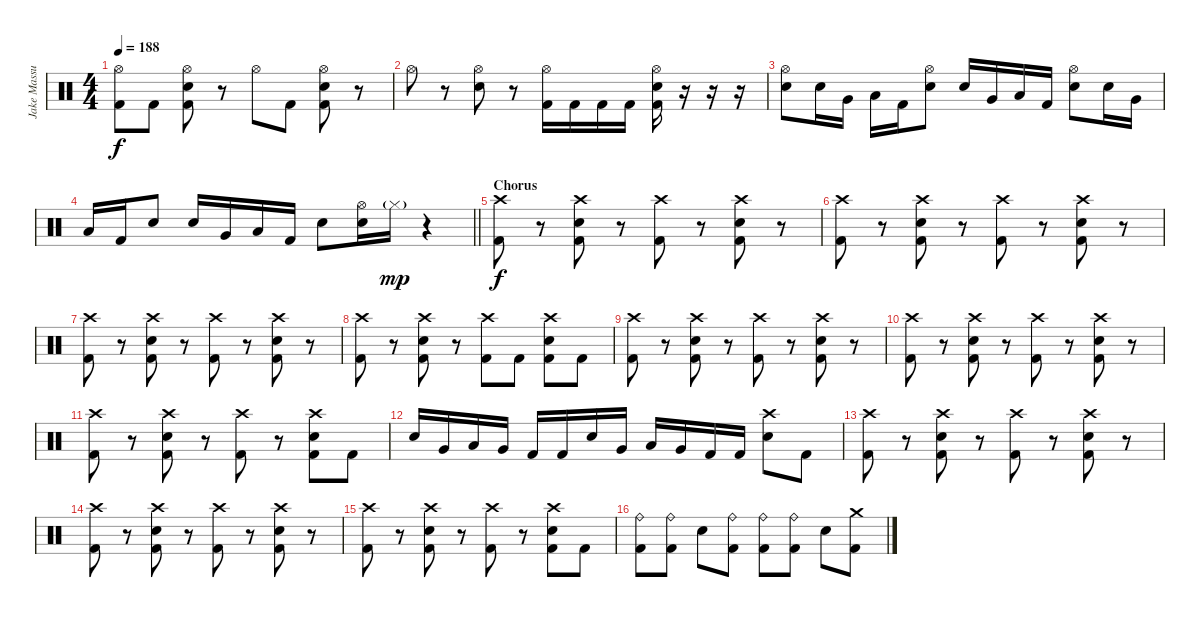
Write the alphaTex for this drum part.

\track ("Jake Massucco" "Jake Massu") {instrument percussion}
\staff {score}
\articulation defaults
\ts (4 4)
\tempo 188
\clef neutral
\ks c
("Hi-Hat (open)" "Kick (hit) 2").8{dy f} "Kick (hit) 2".8 ("Hi-Hat (open)" "Electric Snare (hit)" "Kick (hit) 2").8 r.8 "Hi-Hat (open)".8 "Kick (hit) 2".8 ("Hi-Hat (open)" "Electric Snare (hit)" "Kick (hit) 2").8 r.8 |
"Hi-Hat (open)".8 r.8 ("Hi-Hat (open)" "Electric Snare (hit)").8 r.8 ("Hi-Hat (open)" "Kick (hit) 2").16 "Kick (hit) 2".16 "Kick (hit) 2".16 "Kick (hit) 2".16 ("Hi-Hat (open)" "Electric Snare (hit)" "Kick (hit) 2").16 r.16 r.16 r.16 |
("Hi-Hat (open)" "Electric Snare (hit)").8 "Electric Snare (hit)".16 "Very Low Tom (hit)".16 "Low Floor Tom (hit)".16 "Kick (hit) 2".16 ("Hi-Hat (open)" "Electric Snare (hit)").8 "Electric Snare (hit)".16 "Very Low Tom (hit)".16 "Low Floor Tom (hit)".16 "Kick (hit) 2".16 ("Hi-Hat (open)" "Electric Snare (hit)").8 "Electric Snare (hit)".16 "Very Low Tom (hit)".16 |
\barLineRight lightlight "Low Floor Tom (hit)".16 "Kick (hit) 2".16 "Electric Snare (hit)".8 "Electric Snare (hit)".16 "Very Low Tom (hit)".16 "Low Floor Tom (hit)".16 "Kick (hit) 2".16 "Electric Snare (hit)".8
("Hi-Hat (open)" "Electric Snare (hit)").16 "Hi-Hat (closed)"{g}.16{dy mp} r.4 |
\section ("" "Chorus")
("Crash high (hit)" "Kick (hit) 2").8{dy f} r.8 ("Crash high (hit)" "Electric Snare (hit)" "Kick (hit) 2").8 r.8 ("Crash high (hit)" "Kick (hit) 2").8 r.8 ("Crash high (hit)" "Electric Snare (hit)" "Kick (hit) 2").8 r.8 |
("Crash high (hit)" "Kick (hit) 2").8 r.8 ("Crash high (hit)" "Electric Snare (hit)" "Kick (hit) 2").8 r.8 ("Crash high (hit)" "Kick (hit) 2").8 r.8 ("Crash high (hit)" "Electric Snare (hit)" "Kick (hit) 2").8 r.8 |
("Crash high (hit)" "Kick (hit) 2").8 r.8 ("Crash high (hit)" "Electric Snare (hit)" "Kick (hit) 2").8 r.8 ("Crash high (hit)" "Kick (hit) 2").8 r.8 ("Crash high (hit)" "Electric Snare (hit)" "Kick (hit) 2").8 r.8 |
("Crash high (hit)" "Kick (hit) 2").8 r.8 ("Crash high (hit)" "Electric Snare (hit)" "Kick (hit) 2").8 r.8 ("Crash high (hit)" "Kick (hit) 2").8 "Kick (hit) 2".8 ("Crash high (hit)" "Electric Snare (hit)" "Kick (hit) 2").8 "Kick (hit) 2".8 |
("Crash high (hit)" "Kick (hit) 2").8 r.8 ("Crash high (hit)" "Electric Snare (hit)" "Kick (hit) 2").8 r.8 ("Crash high (hit)" "Kick (hit) 2").8 r.8 ("Crash high (hit)" "Electric Snare (hit)" "Kick (hit) 2").8 r.8 |
("Crash high (hit)" "Kick (hit) 2").8 r.8 ("Crash high (hit)" "Electric Snare (hit)" "Kick (hit) 2").8 r.8 ("Crash high (hit)" "Kick (hit) 2").8 r.8 ("Crash high (hit)" "Electric Snare (hit)" "Kick (hit) 2").8 r.8 |
("Crash high (hit)" "Kick (hit) 2").8 r.8 ("Crash high (hit)" "Electric Snare (hit)" "Kick (hit) 2").8 r.8 ("Crash high (hit)" "Kick (hit) 2").8 r.8 ("Crash high (hit)" "Electric Snare (hit)" "Kick (hit) 2").8 "Kick (hit) 2".8 |
"Electric Snare (hit)".16 "Very Low Tom (hit)".16 "Low Floor Tom (hit)".16 "Very Low Tom (hit)".16 "Kick (hit) 2".16 "Kick (hit) 2".16 "Electric Snare (hit)".16 "Very Low Tom (hit)".16 "Low Floor Tom (hit)".16 "Very Low Tom (hit)".16 "Kick (hit) 2".16 "Kick (hit) 2".16 ("Crash high (hit)" "Electric Snare (hit)").8 "Kick (hit) 2".8 |
("Crash high (hit)" "Kick (hit) 2").8 r.8 ("Crash high (hit)" "Electric Snare (hit)" "Kick (hit) 2").8 r.8 ("Crash high (hit)" "Kick (hit) 2").8 r.8 ("Crash high (hit)" "Electric Snare (hit)" "Kick (hit) 2").8 r.8 |
("Crash high (hit)" "Kick (hit) 2").8 r.8 ("Crash high (hit)" "Electric Snare (hit)" "Kick (hit) 2").8 r.8 ("Crash high (hit)" "Kick (hit) 2").8 r.8 ("Crash high (hit)" "Electric Snare (hit)" "Kick (hit) 2").8 r.8 |
("Crash high (hit)" "Kick (hit) 2").8 r.8 ("Crash high (hit)" "Electric Snare (hit)" "Kick (hit) 2").8 r.8 ("Crash high (hit)" "Kick (hit) 2").8 r.8 ("Crash high (hit)" "Electric Snare (hit)" "Kick (hit) 2").8 "Kick (hit) 2".8 |
("Ride (bell)" "Kick (hit) 2").8 ("Ride (bell)" "Kick (hit) 2").8 "Electric Snare (hit)".8 ("Ride (bell)" "Kick (hit) 2").8 ("Ride (bell)" "Kick (hit) 2").8 ("Ride (bell)" "Kick (hit) 2").8 "Electric Snare (hit)".8 ("Crash medium (hit)" "Kick (hit) 2").8
